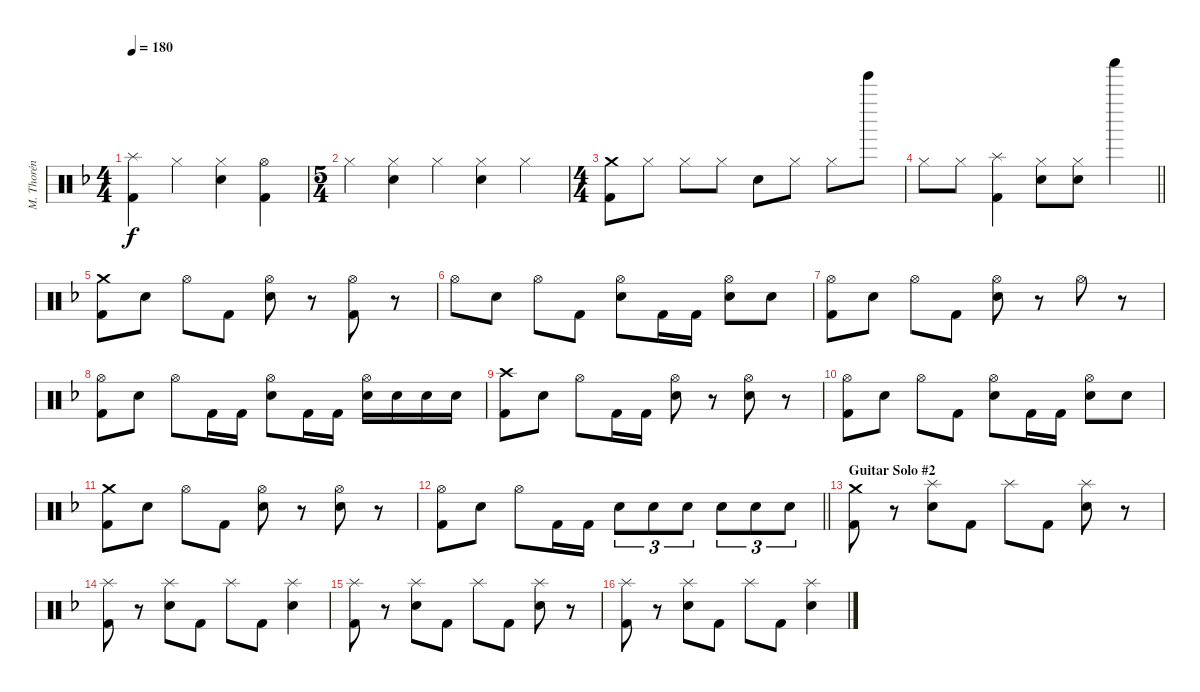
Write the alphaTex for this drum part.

\track ("M. Thorén (Drums)" "M. Thorén ") {instrument percussion}
\staff {score}
\articulation defaults
\ts (4 4)
\tempo 180
\clef neutral
\ks dminor
("Splash (hit)" "Kick (hit) 2").4{dy f} "Hi-Hat (closed)".4 ("Hi-Hat (closed)" "Electric Snare (hit)").4 ("Hi-Hat (open)" "Kick (hit) 2").4 |
\ts (5 4)
"Hi-Hat (closed)".4 ("Hi-Hat (closed)" "Electric Snare (hit)").4 "Hi-Hat (closed)".4 ("Hi-Hat (closed)" "Electric Snare (hit)").4 "Hi-Hat (closed)".4 |
\ts (4 4)
("Crash medium (hit)" "Kick (hit) 2").8 "Hi-Hat (closed)".8 "Hi-Hat (closed)".8 "Hi-Hat (closed)".8 "Electric Snare (hit)".8 "Hi-Hat (closed)".8 "Hi-Hat (closed)".8 "Tinkle Bell (hit)".8 |
\barLineRight lightlight "Hi-Hat (closed)".8 "Hi-Hat (closed)".8
("Splash (hit)" "Kick (hit) 2").4 ("Hi-Hat (closed)" "Electric Snare (hit)").8 ("Hi-Hat (closed)" "Electric Snare (hit)").8 "Shaker (hit)".4 |
("Crash medium (hit)" "Kick (hit) 2").8 "Electric Snare (hit)".8 "Hi-Hat (open)".8 "Kick (hit) 2".8 ("Hi-Hat (open)" "Electric Snare (hit)").8 r.8 ("Hi-Hat (open)" "Kick (hit) 2").8 r.8 |
"Hi-Hat (open)".8 "Electric Snare (hit)".8 "Hi-Hat (open)".8 "Kick (hit) 2".8 ("Hi-Hat (open)" "Electric Snare (hit)").8 "Kick (hit) 2".16 "Kick (hit) 2".16 ("Hi-Hat (open)" "Electric Snare (hit)").8 "Electric Snare (hit)".8 |
("Hi-Hat (open)" "Kick (hit) 2").8 "Electric Snare (hit)".8 "Hi-Hat (open)".8 "Kick (hit) 2".8 ("Hi-Hat (open)" "Electric Snare (hit)").8 r.8 "Hi-Hat (open)".8 r.8 |
("Hi-Hat (open)" "Kick (hit) 2").8 "Electric Snare (hit)".8 "Hi-Hat (open)".8 "Kick (hit) 2".16 "Kick (hit) 2".16 ("Hi-Hat (open)" "Electric Snare (hit)").8 "Kick (hit) 2".16 "Kick (hit) 2".16 ("Hi-Hat (open)" "Electric Snare (hit)").16 "Electric Snare (hit)".16 "Electric Snare (hit)".16 "Electric Snare (hit)".16 |
("Crash high (hit)" "Kick (hit) 2").8 "Electric Snare (hit)".8 "Hi-Hat (open)".8 "Kick (hit) 2".16 "Kick (hit) 2".16 ("Hi-Hat (open)" "Electric Snare (hit)").8 r.8 ("Hi-Hat (open)" "Electric Snare (hit)").8 r.8 |
("Hi-Hat (open)" "Kick (hit) 2").8 "Electric Snare (hit)".8 "Hi-Hat (open)".8 "Kick (hit) 2".8 ("Hi-Hat (open)" "Electric Snare (hit)").8 "Kick (hit) 2".16 "Kick (hit) 2".16 ("Hi-Hat (open)" "Electric Snare (hit)").8 "Electric Snare (hit)".8 |
("Crash medium (hit)" "Kick (hit) 2").8 "Electric Snare (hit)".8 "Hi-Hat (open)".8 "Kick (hit) 2".8 ("Hi-Hat (open)" "Electric Snare (hit)").8 r.8 ("Hi-Hat (open)" "Electric Snare (hit)").8 r.8 |
\barLineRight lightlight
("Hi-Hat (open)" "Kick (hit) 2").8 "Electric Snare (hit)".8 "Hi-Hat (open)".8 "Kick (hit) 2".16 "Kick (hit) 2".16 "Electric Snare (hit)".8{tu (3 2)} "Electric Snare (hit)".8{tu (3 2)} "Electric Snare (hit)".8{tu (3 2)} "Electric Snare (hit)".8{tu (3 2)} "Electric Snare (hit)".8{tu (3 2)} "Electric Snare (hit)".8{tu (3 2)} |
\section ("" "Guitar Solo #2")
("Crash medium (hit)" "Kick (hit) 2").8 r.8 ("Splash (hit)" "Electric Snare (hit)").8 "Kick (hit) 2".8 "Splash (hit)".8 "Kick (hit) 2".8 ("Splash (hit)" "Electric Snare (hit)").8 r.8 |
("Splash (hit)" "Kick (hit) 2").8 r.8 ("Splash (hit)" "Electric Snare (hit)").8 "Kick (hit) 2".8 "Splash (hit)".8 "Kick (hit) 2".8 ("Splash (hit)" "Electric Snare (hit)").4 |
("Splash (hit)" "Kick (hit) 2").8 r.8 ("Splash (hit)" "Electric Snare (hit)").8 "Kick (hit) 2".8 "Splash (hit)".8 "Kick (hit) 2".8 ("Splash (hit)" "Electric Snare (hit)").8 r.8 |
("Splash (hit)" "Kick (hit) 2").8 r.8 ("Splash (hit)" "Electric Snare (hit)").8 "Kick (hit) 2".8 "Splash (hit)".8 "Kick (hit) 2".8 ("Splash (hit)" "Electric Snare (hit)").4
